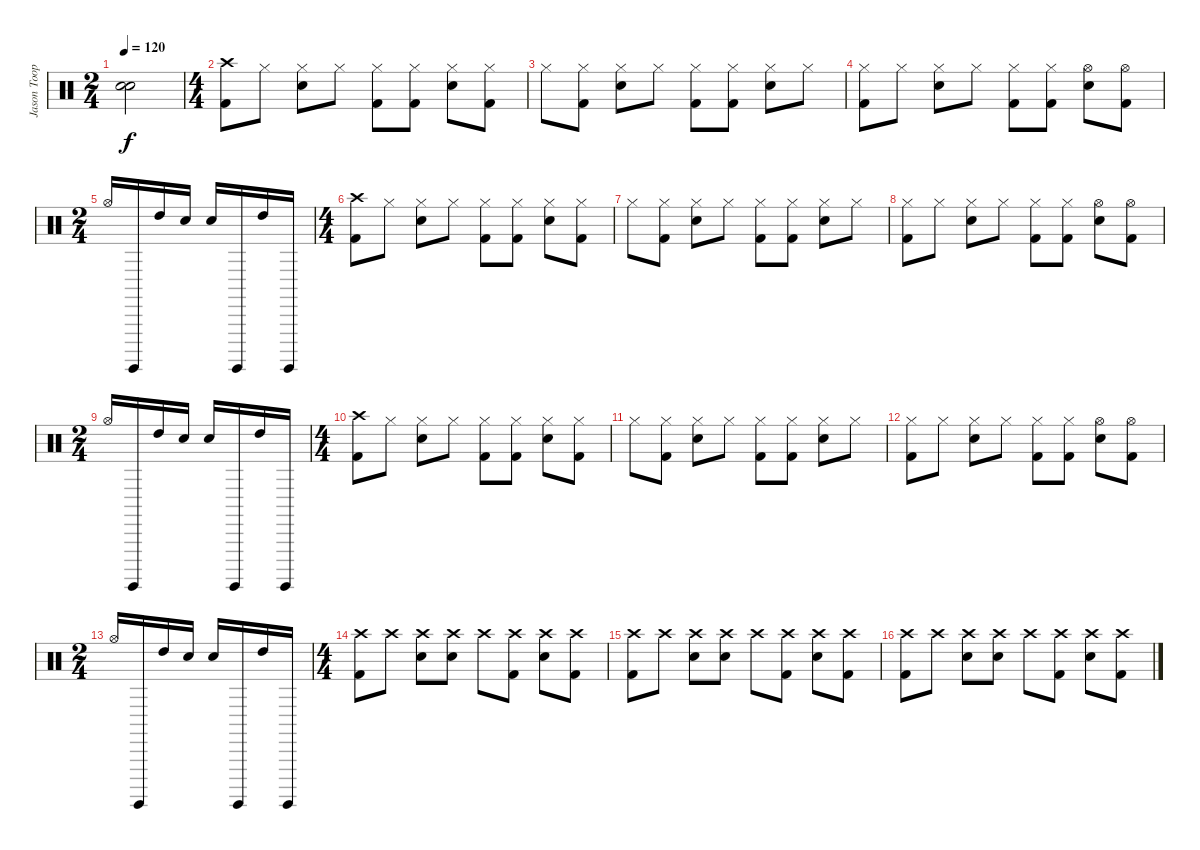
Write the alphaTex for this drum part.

\track ("Jason Toop Cooper" "Jason Toop") {instrument percussion}
\staff {score}
\articulation defaults
\ts (2 4)
\tempo 120
\clef neutral
\ks c
("Snare (hit)"{t} "Snare (hit)"{t}).2{dy f} |
\ts (4 4)
("Crash high (hit)" "Kick (hit) 2").8 "Hi-Hat (closed)".8 ("Hi-Hat (closed)" "Electric Snare (hit)").8 "Hi-Hat (closed)".8 ("Hi-Hat (closed)" "Kick (hit) 2").8 ("Hi-Hat (closed)" "Kick (hit) 2").8 ("Hi-Hat (closed)" "Electric Snare (hit)").8 ("Hi-Hat (closed)" "Kick (hit) 2").8 |
"Hi-Hat (closed)".8 ("Hi-Hat (closed)" "Kick (hit) 2").8 ("Hi-Hat (closed)" "Electric Snare (hit)").8 "Hi-Hat (closed)".8 ("Hi-Hat (closed)" "Kick (hit) 2").8 ("Hi-Hat (closed)" "Kick (hit) 2").8 ("Hi-Hat (closed)" "Electric Snare (hit)").8 "Hi-Hat (closed)".8 |
("Hi-Hat (closed)" "Kick (hit) 2").8 "Hi-Hat (closed)".8 ("Hi-Hat (closed)" "Electric Snare (hit)").8 "Hi-Hat (closed)".8 ("Hi-Hat (closed)" "Kick (hit) 2").8 ("Hi-Hat (closed)" "Kick (hit) 2").8 ("Hi-Hat (open)" "Electric Snare (hit)").8 ("Hi-Hat (open)" "Kick (hit) 2").8 |
\ts (2 4)
"Hi-Hat (open)".16 "Surdo (hit)".16 "High Tom (hit)".16 "Electric Snare (hit)".16 "Electric Snare (hit)".16 "Surdo (hit)".16 "High Tom (hit)".16 "Surdo (hit)".16 |
\ts (4 4)
("Crash high (hit)" "Kick (hit) 2").8 "Hi-Hat (closed)".8 ("Hi-Hat (closed)" "Electric Snare (hit)").8 "Hi-Hat (closed)".8 ("Hi-Hat (closed)" "Kick (hit) 2").8 ("Hi-Hat (closed)" "Kick (hit) 2").8 ("Hi-Hat (closed)" "Electric Snare (hit)").8 ("Hi-Hat (closed)" "Kick (hit) 2").8 |
"Hi-Hat (closed)".8 ("Hi-Hat (closed)" "Kick (hit) 2").8 ("Hi-Hat (closed)" "Electric Snare (hit)").8 "Hi-Hat (closed)".8 ("Hi-Hat (closed)" "Kick (hit) 2").8 ("Hi-Hat (closed)" "Kick (hit) 2").8 ("Hi-Hat (closed)" "Electric Snare (hit)").8 "Hi-Hat (closed)".8 |
("Hi-Hat (closed)" "Kick (hit) 2").8 "Hi-Hat (closed)".8 ("Hi-Hat (closed)" "Electric Snare (hit)").8 "Hi-Hat (closed)".8 ("Hi-Hat (closed)" "Kick (hit) 2").8 ("Hi-Hat (closed)" "Kick (hit) 2").8 ("Hi-Hat (open)" "Electric Snare (hit)").8 ("Hi-Hat (open)" "Kick (hit) 2").8 |
\ts (2 4)
"Hi-Hat (open)".16 "Surdo (hit)".16 "High Tom (hit)".16 "Electric Snare (hit)".16 "Electric Snare (hit)".16 "Surdo (hit)".16 "High Tom (hit)".16 "Surdo (hit)".16 |
\ts (4 4)
("Crash high (hit)" "Kick (hit) 2").8 "Hi-Hat (closed)".8 ("Hi-Hat (closed)" "Electric Snare (hit)").8 "Hi-Hat (closed)".8 ("Hi-Hat (closed)" "Kick (hit) 2").8 ("Hi-Hat (closed)" "Kick (hit) 2").8 ("Hi-Hat (closed)" "Electric Snare (hit)").8 ("Hi-Hat (closed)" "Kick (hit) 2").8 |
"Hi-Hat (closed)".8 ("Hi-Hat (closed)" "Kick (hit) 2").8 ("Hi-Hat (closed)" "Electric Snare (hit)").8 "Hi-Hat (closed)".8 ("Hi-Hat (closed)" "Kick (hit) 2").8 ("Hi-Hat (closed)" "Kick (hit) 2").8 ("Hi-Hat (closed)" "Electric Snare (hit)").8 "Hi-Hat (closed)".8 |
("Hi-Hat (closed)" "Kick (hit) 2").8 "Hi-Hat (closed)".8 ("Hi-Hat (closed)" "Electric Snare (hit)").8 "Hi-Hat (closed)".8 ("Hi-Hat (closed)" "Kick (hit) 2").8 ("Hi-Hat (closed)" "Kick (hit) 2").8 ("Hi-Hat (open)" "Electric Snare (hit)").8 ("Hi-Hat (open)" "Kick (hit) 2").8 |
\ts (2 4)
"Hi-Hat (open)".16 "Surdo (hit)".16 "High Tom (hit)".16 "Electric Snare (hit)".16 "Electric Snare (hit)".16 "Surdo (hit)".16 "High Tom (hit)".16 "Surdo (hit)".16 |
\ts (4 4)
("Crash high (hit)" "Kick (hit) 2").8 "Crash high (hit)".8 ("Crash high (hit)" "Electric Snare (hit)").8 ("Crash high (hit)" "Electric Snare (hit)").8 "Crash high (hit)".8 ("Crash high (hit)" "Kick (hit) 2").8 ("Crash high (hit)" "Electric Snare (hit)").8 ("Crash high (hit)" "Kick (hit) 2").8 |
("Crash high (hit)" "Kick (hit) 2").8 "Crash high (hit)".8 ("Crash high (hit)" "Electric Snare (hit)").8 ("Crash high (hit)" "Electric Snare (hit)").8 "Crash high (hit)".8 ("Crash high (hit)" "Kick (hit) 2").8 ("Crash high (hit)" "Electric Snare (hit)").8 ("Crash high (hit)" "Kick (hit) 2").8 |
("Crash high (hit)" "Kick (hit) 2").8 "Crash high (hit)".8 ("Crash high (hit)" "Electric Snare (hit)").8 ("Crash high (hit)" "Electric Snare (hit)").8 "Crash high (hit)".8 ("Crash high (hit)" "Kick (hit) 2").8 ("Crash high (hit)" "Electric Snare (hit)").8 ("Crash high (hit)" "Kick (hit) 2").8
